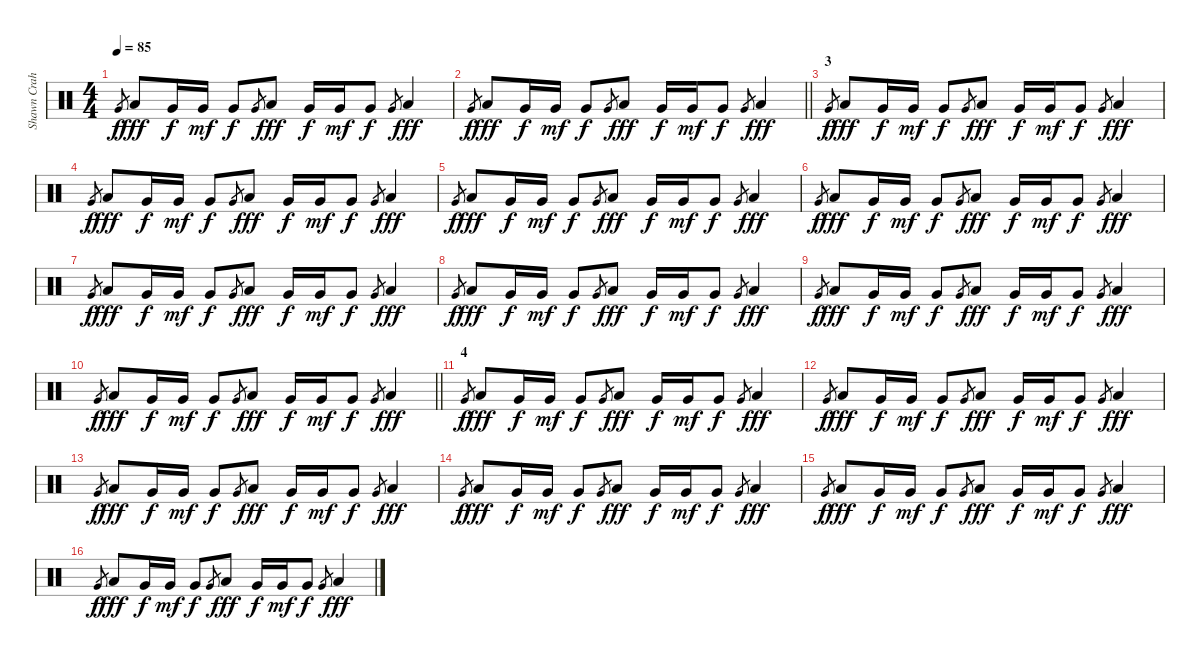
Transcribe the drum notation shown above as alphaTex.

\track ("Shawn Crahan" "Shawn Crah") {instrument percussion}
\staff {score}
\articulation defaults
\ts (4 4)
\tempo 85
\clef neutral
\ks c "Very Low Tom (hit)".8{gr dy f} "Low Tom (hit)".8{dy fff} "Very Low Tom (hit)".16{dy f} "Very Low Tom (hit)".16{dy mf} "Very Low Tom (hit)".8{dy f} "Very Low Tom (hit)".8{gr} "Low Tom (hit)".8{dy fff} "Very Low Tom (hit)".16{dy f} "Very Low Tom (hit)".16{dy mf} "Very Low Tom (hit)".8{dy f} "Very Low Tom (hit)".8{gr} "Low Tom (hit)".4{dy fff}
|
\barLineRight lightlight "Very Low Tom (hit)".8{gr dy f} "Low Tom (hit)".8{dy fff} "Very Low Tom (hit)".16{dy f} "Very Low Tom (hit)".16{dy mf} "Very Low Tom (hit)".8{dy f} "Very Low Tom (hit)".8{gr} "Low Tom (hit)".8{dy fff} "Very Low Tom (hit)".16{dy f} "Very Low Tom (hit)".16{dy mf} "Very Low Tom (hit)".8{dy f} "Very Low Tom (hit)".8{gr} "Low Tom (hit)".4{dy fff}
|
\section ("" "3")
"Very Low Tom (hit)".8{gr dy f} "Low Tom (hit)".8{dy fff} "Very Low Tom (hit)".16{dy f} "Very Low Tom (hit)".16{dy mf} "Very Low Tom (hit)".8{dy f} "Very Low Tom (hit)".8{gr} "Low Tom (hit)".8{dy fff} "Very Low Tom (hit)".16{dy f} "Very Low Tom (hit)".16{dy mf} "Very Low Tom (hit)".8{dy f} "Very Low Tom (hit)".8{gr} "Low Tom (hit)".4{dy fff} |
"Very Low Tom (hit)".8{gr dy f} "Low Tom (hit)".8{dy fff} "Very Low Tom (hit)".16{dy f} "Very Low Tom (hit)".16{dy mf} "Very Low Tom (hit)".8{dy f} "Very Low Tom (hit)".8{gr} "Low Tom (hit)".8{dy fff} "Very Low Tom (hit)".16{dy f} "Very Low Tom (hit)".16{dy mf} "Very Low Tom (hit)".8{dy f} "Very Low Tom (hit)".8{gr} "Low Tom (hit)".4{dy fff} |
"Very Low Tom (hit)".8{gr dy f} "Low Tom (hit)".8{dy fff} "Very Low Tom (hit)".16{dy f} "Very Low Tom (hit)".16{dy mf} "Very Low Tom (hit)".8{dy f} "Very Low Tom (hit)".8{gr} "Low Tom (hit)".8{dy fff} "Very Low Tom (hit)".16{dy f} "Very Low Tom (hit)".16{dy mf} "Very Low Tom (hit)".8{dy f} "Very Low Tom (hit)".8{gr} "Low Tom (hit)".4{dy fff} |
"Very Low Tom (hit)".8{gr dy f} "Low Tom (hit)".8{dy fff} "Very Low Tom (hit)".16{dy f} "Very Low Tom (hit)".16{dy mf} "Very Low Tom (hit)".8{dy f} "Very Low Tom (hit)".8{gr} "Low Tom (hit)".8{dy fff} "Very Low Tom (hit)".16{dy f} "Very Low Tom (hit)".16{dy mf} "Very Low Tom (hit)".8{dy f} "Very Low Tom (hit)".8{gr} "Low Tom (hit)".4{dy fff} |
"Very Low Tom (hit)".8{gr dy f} "Low Tom (hit)".8{dy fff} "Very Low Tom (hit)".16{dy f} "Very Low Tom (hit)".16{dy mf} "Very Low Tom (hit)".8{dy f} "Very Low Tom (hit)".8{gr} "Low Tom (hit)".8{dy fff} "Very Low Tom (hit)".16{dy f} "Very Low Tom (hit)".16{dy mf} "Very Low Tom (hit)".8{dy f} "Very Low Tom (hit)".8{gr} "Low Tom (hit)".4{dy fff} |
"Very Low Tom (hit)".8{gr dy f} "Low Tom (hit)".8{dy fff} "Very Low Tom (hit)".16{dy f} "Very Low Tom (hit)".16{dy mf} "Very Low Tom (hit)".8{dy f} "Very Low Tom (hit)".8{gr} "Low Tom (hit)".8{dy fff} "Very Low Tom (hit)".16{dy f} "Very Low Tom (hit)".16{dy mf} "Very Low Tom (hit)".8{dy f} "Very Low Tom (hit)".8{gr} "Low Tom (hit)".4{dy fff} |
"Very Low Tom (hit)".8{gr dy f} "Low Tom (hit)".8{dy fff} "Very Low Tom (hit)".16{dy f} "Very Low Tom (hit)".16{dy mf} "Very Low Tom (hit)".8{dy f} "Very Low Tom (hit)".8{gr} "Low Tom (hit)".8{dy fff} "Very Low Tom (hit)".16{dy f} "Very Low Tom (hit)".16{dy mf} "Very Low Tom (hit)".8{dy f} "Very Low Tom (hit)".8{gr} "Low Tom (hit)".4{dy fff} |
\barLineRight lightlight "Very Low Tom (hit)".8{gr dy f} "Low Tom (hit)".8{dy fff} "Very Low Tom (hit)".16{dy f} "Very Low Tom (hit)".16{dy mf} "Very Low Tom (hit)".8{dy f} "Very Low Tom (hit)".8{gr} "Low Tom (hit)".8{dy fff} "Very Low Tom (hit)".16{dy f} "Very Low Tom (hit)".16{dy mf} "Very Low Tom (hit)".8{dy f} "Very Low Tom (hit)".8{gr} "Low Tom (hit)".4{dy fff}
|
\section ("" "4")
"Very Low Tom (hit)".8{gr dy f} "Low Tom (hit)".8{dy fff} "Very Low Tom (hit)".16{dy f} "Very Low Tom (hit)".16{dy mf} "Very Low Tom (hit)".8{dy f} "Very Low Tom (hit)".8{gr} "Low Tom (hit)".8{dy fff} "Very Low Tom (hit)".16{dy f} "Very Low Tom (hit)".16{dy mf} "Very Low Tom (hit)".8{dy f} "Very Low Tom (hit)".8{gr} "Low Tom (hit)".4{dy fff} |
"Very Low Tom (hit)".8{gr dy f} "Low Tom (hit)".8{dy fff} "Very Low Tom (hit)".16{dy f} "Very Low Tom (hit)".16{dy mf} "Very Low Tom (hit)".8{dy f} "Very Low Tom (hit)".8{gr} "Low Tom (hit)".8{dy fff} "Very Low Tom (hit)".16{dy f} "Very Low Tom (hit)".16{dy mf} "Very Low Tom (hit)".8{dy f} "Very Low Tom (hit)".8{gr} "Low Tom (hit)".4{dy fff} |
"Very Low Tom (hit)".8{gr dy f} "Low Tom (hit)".8{dy fff} "Very Low Tom (hit)".16{dy f} "Very Low Tom (hit)".16{dy mf} "Very Low Tom (hit)".8{dy f} "Very Low Tom (hit)".8{gr} "Low Tom (hit)".8{dy fff} "Very Low Tom (hit)".16{dy f} "Very Low Tom (hit)".16{dy mf} "Very Low Tom (hit)".8{dy f} "Very Low Tom (hit)".8{gr} "Low Tom (hit)".4{dy fff} |
"Very Low Tom (hit)".8{gr dy f} "Low Tom (hit)".8{dy fff} "Very Low Tom (hit)".16{dy f} "Very Low Tom (hit)".16{dy mf} "Very Low Tom (hit)".8{dy f} "Very Low Tom (hit)".8{gr} "Low Tom (hit)".8{dy fff} "Very Low Tom (hit)".16{dy f} "Very Low Tom (hit)".16{dy mf} "Very Low Tom (hit)".8{dy f} "Very Low Tom (hit)".8{gr} "Low Tom (hit)".4{dy fff} |
"Very Low Tom (hit)".8{gr dy f} "Low Tom (hit)".8{dy fff} "Very Low Tom (hit)".16{dy f} "Very Low Tom (hit)".16{dy mf} "Very Low Tom (hit)".8{dy f} "Very Low Tom (hit)".8{gr} "Low Tom (hit)".8{dy fff} "Very Low Tom (hit)".16{dy f} "Very Low Tom (hit)".16{dy mf} "Very Low Tom (hit)".8{dy f} "Very Low Tom (hit)".8{gr} "Low Tom (hit)".4{dy fff} |
"Very Low Tom (hit)".8{gr dy f} "Low Tom (hit)".8{dy fff} "Very Low Tom (hit)".16{dy f} "Very Low Tom (hit)".16{dy mf} "Very Low Tom (hit)".8{dy f} "Very Low Tom (hit)".8{gr} "Low Tom (hit)".8{dy fff} "Very Low Tom (hit)".16{dy f} "Very Low Tom (hit)".16{dy mf} "Very Low Tom (hit)".8{dy f} "Very Low Tom (hit)".8{gr} "Low Tom (hit)".4{dy fff}
